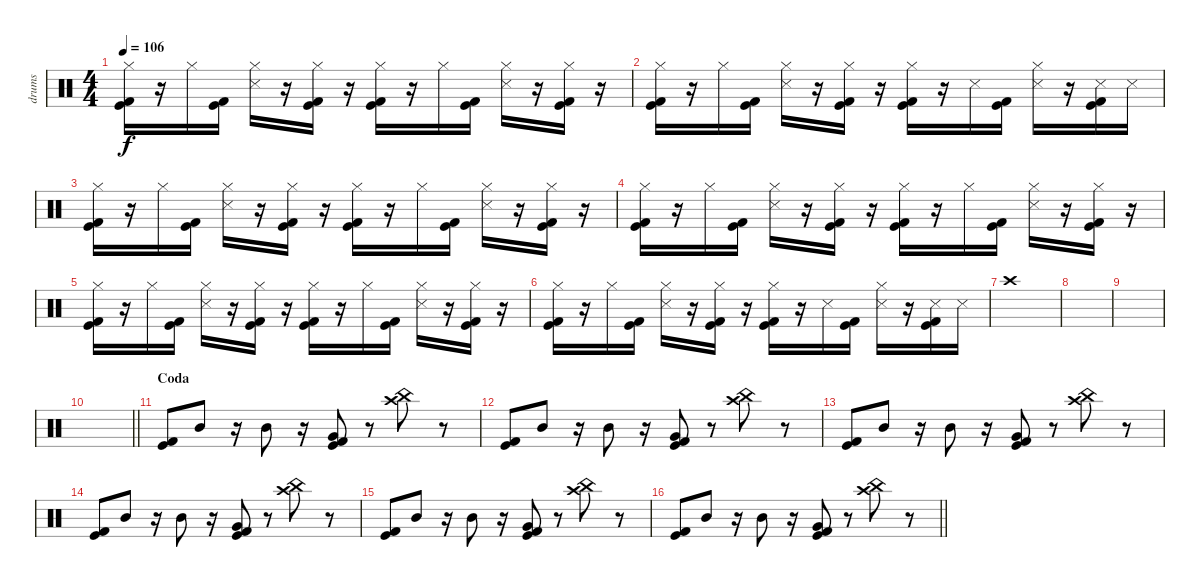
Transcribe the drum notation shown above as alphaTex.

\track ("drums" "drums") {instrument percussion}
\staff {score}
\articulation defaults
\ts (4 4)
\tempo 106
\clef neutral
\ks c
("Hi-Hat (closed)" "Kick (hit) 2" "Kick (hit)").16{dy f} r.16 "Hi-Hat (closed)".16 ("Kick (hit) 2" "Kick (hit)").16 ("Hi-Hat (closed)" "Snare (side stick) 3").16 r.16 ("Hi-Hat (closed)" "Kick (hit) 2" "Kick (hit)").16 r.16 ("Hi-Hat (closed)" "Kick (hit) 2" "Kick (hit)").16 r.16 "Hi-Hat (closed)".16 ("Kick (hit) 2" "Kick (hit)").16 ("Hi-Hat (closed)" "Snare (side stick) 3").16 r.16 ("Hi-Hat (closed)" "Kick (hit) 2" "Kick (hit)").16 r.16 |
("Hi-Hat (closed)" "Kick (hit) 2" "Kick (hit)").16 r.16 "Hi-Hat (closed)".16 ("Kick (hit) 2" "Kick (hit)").16 ("Hi-Hat (closed)" "Snare (side stick) 3").16 r.16 ("Hi-Hat (closed)" "Kick (hit) 2" "Kick (hit)").16 r.16 ("Hi-Hat (closed)" "Kick (hit) 2" "Kick (hit)").16 r.16 "Snare (side stick) 3".16 ("Kick (hit) 2" "Kick (hit)").16 ("Hi-Hat (closed)" "Snare (side stick) 3").16 r.16 ("Snare (side stick) 3" "Kick (hit) 2" "Kick (hit)").16 "Snare (side stick) 3".16 |
("Hi-Hat (closed)" "Kick (hit) 2" "Kick (hit)").16 r.16 "Hi-Hat (closed)".16 ("Kick (hit) 2" "Kick (hit)").16 ("Hi-Hat (closed)" "Snare (side stick) 3").16 r.16 ("Hi-Hat (closed)" "Kick (hit) 2" "Kick (hit)").16 r.16 ("Hi-Hat (closed)" "Kick (hit) 2" "Kick (hit)").16 r.16 "Hi-Hat (closed)".16 ("Kick (hit) 2" "Kick (hit)").16 ("Hi-Hat (closed)" "Snare (side stick) 3").16 r.16 ("Hi-Hat (closed)" "Kick (hit) 2" "Kick (hit)").16 r.16 |
("Hi-Hat (closed)" "Kick (hit) 2" "Kick (hit)").16 r.16 "Hi-Hat (closed)".16 ("Kick (hit) 2" "Kick (hit)").16 ("Hi-Hat (closed)" "Snare (side stick) 3").16 r.16 ("Hi-Hat (closed)" "Kick (hit) 2" "Kick (hit)").16 r.16 ("Hi-Hat (closed)" "Kick (hit) 2" "Kick (hit)").16 r.16 "Hi-Hat (closed)".16 ("Kick (hit) 2" "Kick (hit)").16 ("Hi-Hat (closed)" "Snare (side stick) 3").16 r.16 ("Hi-Hat (closed)" "Kick (hit) 2" "Kick (hit)").16 r.16 |
("Hi-Hat (closed)" "Kick (hit) 2" "Kick (hit)").16 r.16 "Hi-Hat (closed)".16 ("Kick (hit) 2" "Kick (hit)").16 ("Hi-Hat (closed)" "Snare (side stick) 3").16 r.16 ("Hi-Hat (closed)" "Kick (hit) 2" "Kick (hit)").16 r.16 ("Hi-Hat (closed)" "Kick (hit) 2" "Kick (hit)").16 r.16 "Hi-Hat (closed)".16 ("Kick (hit) 2" "Kick (hit)").16 ("Hi-Hat (closed)" "Snare (side stick) 3").16 r.16 ("Hi-Hat (closed)" "Kick (hit) 2" "Kick (hit)").16 r.16 |
("Hi-Hat (closed)" "Kick (hit) 2" "Kick (hit)").16 r.16 "Hi-Hat (closed)".16 ("Kick (hit) 2" "Kick (hit)").16 ("Hi-Hat (closed)" "Snare (side stick) 3").16 r.16 ("Hi-Hat (closed)" "Kick (hit) 2" "Kick (hit)").16 r.16 ("Hi-Hat (closed)" "Kick (hit) 2" "Kick (hit)").16 r.16 "Snare (side stick) 3".16 ("Kick (hit) 2" "Kick (hit)").16 ("Hi-Hat (closed)" "Snare (side stick) 3").16 r.16 ("Snare (side stick) 3" "Kick (hit) 2" "Kick (hit)").16 "Snare (side stick) 3".16 |
"Crash high (hit)".1 |
|
|
\barLineRight lightlight
|
\section ("" "Coda")
("Kick (hit) 2" "Kick (hit)").8 "Mid Tom (hit)".8 r.16 "Mid Tom (hit)".8 r.16 ("Very Low Tom (hit)" "Kick (hit) 2" "Kick (hit)").8 r.8 ("Crash high (hit)" "China (hit)").8 r.8 |
("Kick (hit) 2" "Kick (hit)").8 "Mid Tom (hit)".8 r.16 "Mid Tom (hit)".8 r.16 ("Very Low Tom (hit)" "Kick (hit) 2" "Kick (hit)").8 r.8 ("Crash high (hit)" "China (hit)").8 r.8 |
("Kick (hit) 2" "Kick (hit)").8 "Mid Tom (hit)".8 r.16 "Mid Tom (hit)".8 r.16 ("Very Low Tom (hit)" "Kick (hit) 2" "Kick (hit)").8 r.8 ("Crash high (hit)" "China (hit)").8 r.8 |
("Kick (hit) 2" "Kick (hit)").8 "Mid Tom (hit)".8 r.16 "Mid Tom (hit)".8 r.16 ("Very Low Tom (hit)" "Kick (hit) 2" "Kick (hit)").8 r.8 ("Crash high (hit)" "China (hit)").8 r.8 |
("Kick (hit) 2" "Kick (hit)").8 "Mid Tom (hit)".8 r.16 "Mid Tom (hit)".8 r.16 ("Very Low Tom (hit)" "Kick (hit) 2" "Kick (hit)").8 r.8 ("Crash high (hit)" "China (hit)").8 r.8 |
\barLineRight lightlight
("Kick (hit) 2" "Kick (hit)").8 "Mid Tom (hit)".8 r.16 "Mid Tom (hit)".8 r.16 ("Very Low Tom (hit)" "Kick (hit) 2" "Kick (hit)").8 r.8 ("Crash high (hit)" "China (hit)").8 r.8
